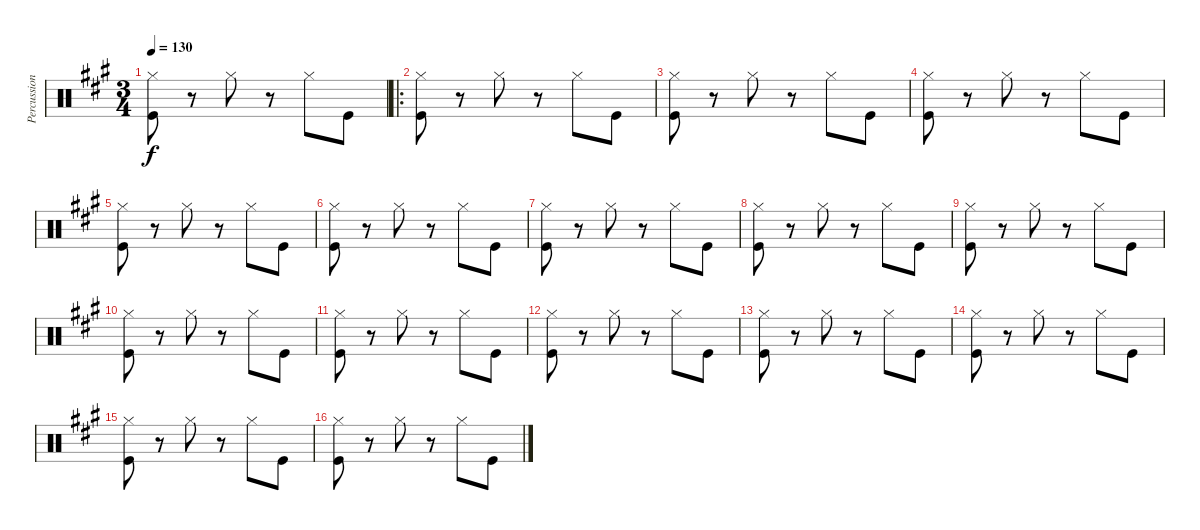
\track ("Percussions" "Percussion") {instrument percussion}
\staff {score}
\articulation defaults
\ts (3 4)
\tempo 130
\clef neutral
\ks a
("Hi-Hat (closed)" "Kick (hit)").8{dy f} r.8 "Hi-Hat (closed)".8 r.8 "Hi-Hat (closed)".8 "Kick (hit)".8 |
\ro
("Hi-Hat (closed)" "Kick (hit)").8 r.8 "Hi-Hat (closed)".8 r.8 "Hi-Hat (closed)".8 "Kick (hit)".8 |
("Hi-Hat (closed)" "Kick (hit)").8 r.8 "Hi-Hat (closed)".8 r.8 "Hi-Hat (closed)".8 "Kick (hit)".8 |
("Hi-Hat (closed)" "Kick (hit)").8 r.8 "Hi-Hat (closed)".8 r.8 "Hi-Hat (closed)".8 "Kick (hit)".8 |
("Hi-Hat (closed)" "Kick (hit)").8 r.8 "Hi-Hat (closed)".8 r.8 "Hi-Hat (closed)".8 "Kick (hit)".8 |
("Hi-Hat (closed)" "Kick (hit)").8 r.8 "Hi-Hat (closed)".8 r.8 "Hi-Hat (closed)".8 "Kick (hit)".8 |
("Hi-Hat (closed)" "Kick (hit)").8 r.8 "Hi-Hat (closed)".8 r.8 "Hi-Hat (closed)".8 "Kick (hit)".8 |
("Hi-Hat (closed)" "Kick (hit)").8 r.8 "Hi-Hat (closed)".8 r.8 "Hi-Hat (closed)".8 "Kick (hit)".8 |
("Hi-Hat (closed)" "Kick (hit)").8 r.8 "Hi-Hat (closed)".8 r.8 "Hi-Hat (closed)".8 "Kick (hit)".8 |
("Hi-Hat (closed)" "Kick (hit)").8 r.8 "Hi-Hat (closed)".8 r.8 "Hi-Hat (closed)".8 "Kick (hit)".8 |
("Hi-Hat (closed)" "Kick (hit)").8 r.8 "Hi-Hat (closed)".8 r.8 "Hi-Hat (closed)".8 "Kick (hit)".8 |
("Hi-Hat (closed)" "Kick (hit)").8 r.8 "Hi-Hat (closed)".8 r.8 "Hi-Hat (closed)".8 "Kick (hit)".8 |
("Hi-Hat (closed)" "Kick (hit)").8 r.8 "Hi-Hat (closed)".8 r.8 "Hi-Hat (closed)".8 "Kick (hit)".8 |
("Hi-Hat (closed)" "Kick (hit)").8 r.8 "Hi-Hat (closed)".8 r.8 "Hi-Hat (closed)".8 "Kick (hit)".8 |
("Hi-Hat (closed)" "Kick (hit)").8 r.8 "Hi-Hat (closed)".8 r.8 "Hi-Hat (closed)".8 "Kick (hit)".8 |
("Hi-Hat (closed)" "Kick (hit)").8 r.8 "Hi-Hat (closed)".8 r.8 "Hi-Hat (closed)".8 "Kick (hit)".8
